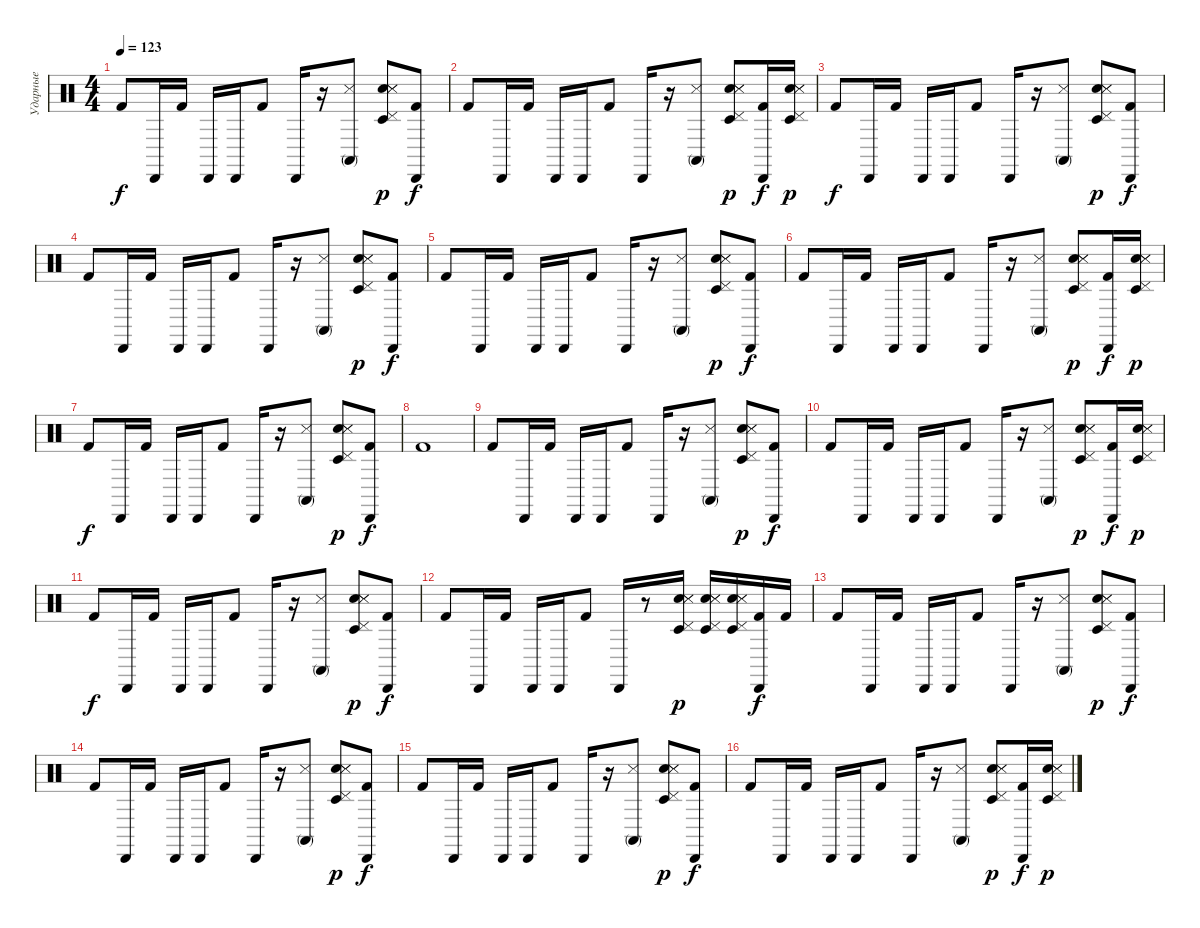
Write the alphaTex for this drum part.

\track ("Ударные" "Ударные") {instrument percussion}
\staff {score}
\articulation defaults
\ts (4 4)
\tempo 123
\clef neutral
\ks c "Kick (hit) 2".8{dy f} "Cabasa (hit)".16 "Kick (hit) 2".16 "Cabasa (hit)".16 "Cabasa (hit)".16 "Kick (hit) 2".8 "Cabasa (hit)".16
r.16 ("Conga high (mute)" "Metronome (hit)").8 ("Hand Clap (hit)" "Metronome (hit)" "Snare (side stick) 3" "Timbale low (hit)" "Pedal Hi-Hat (hit)").8{dy p} ("Cabasa (hit)" "Kick (hit) 2").8{dy f} |
"Kick (hit) 2".8 "Cabasa (hit)".16 "Kick (hit) 2".16 "Cabasa (hit)".16 "Cabasa (hit)".16 "Kick (hit) 2".8 "Cabasa (hit)".16 r.16 ("Conga high (mute)" "Metronome (hit)").8 ("Hand Clap (hit)" "Metronome (hit)" "Snare (side stick) 3" "Timbale low (hit)" "Pedal Hi-Hat (hit)").8{dy p} ("Cabasa (hit)" "Kick (hit) 2").16{dy f} ("Hand Clap (hit)" "Metronome (hit)" "Snare (side stick) 3" "Timbale low (hit)" "Pedal Hi-Hat (hit)").16{dy p} |
"Kick (hit) 2".8{dy f} "Cabasa (hit)".16 "Kick (hit) 2".16 "Cabasa (hit)".16 "Cabasa (hit)".16 "Kick (hit) 2".8 "Cabasa (hit)".16 r.16 ("Conga high (mute)" "Metronome (hit)").8 ("Hand Clap (hit)" "Metronome (hit)" "Snare (side stick) 3" "Timbale low (hit)" "Pedal Hi-Hat (hit)").8{dy p} ("Cabasa (hit)" "Kick (hit) 2").8{dy f} |
"Kick (hit) 2".8 "Cabasa (hit)".16 "Kick (hit) 2".16 "Cabasa (hit)".16 "Cabasa (hit)".16 "Kick (hit) 2".8 "Cabasa (hit)".16 r.16 ("Conga high (mute)" "Metronome (hit)").8 ("Hand Clap (hit)" "Metronome (hit)" "Snare (side stick) 3" "Timbale low (hit)" "Pedal Hi-Hat (hit)").8{dy p} ("Cabasa (hit)" "Kick (hit) 2").8{dy f} |
"Kick (hit) 2".8 "Cabasa (hit)".16 "Kick (hit) 2".16 "Cabasa (hit)".16 "Cabasa (hit)".16 "Kick (hit) 2".8 "Cabasa (hit)".16 r.16 ("Conga high (mute)" "Metronome (hit)").8 ("Hand Clap (hit)" "Metronome (hit)" "Snare (side stick) 3" "Timbale low (hit)" "Pedal Hi-Hat (hit)").8{dy p} ("Cabasa (hit)" "Kick (hit) 2").8{dy f} |
"Kick (hit) 2".8 "Cabasa (hit)".16 "Kick (hit) 2".16 "Cabasa (hit)".16 "Cabasa (hit)".16 "Kick (hit) 2".8 "Cabasa (hit)".16 r.16 ("Conga high (mute)" "Metronome (hit)").8 ("Hand Clap (hit)" "Metronome (hit)" "Snare (side stick) 3" "Timbale low (hit)" "Pedal Hi-Hat (hit)").8{dy p} ("Cabasa (hit)" "Kick (hit) 2").16{dy f} ("Hand Clap (hit)" "Metronome (hit)" "Snare (side stick) 3" "Timbale low (hit)" "Pedal Hi-Hat (hit)").16{dy p} |
"Kick (hit) 2".8{dy f} "Cabasa (hit)".16 "Kick (hit) 2".16 "Cabasa (hit)".16 "Cabasa (hit)".16 "Kick (hit) 2".8 "Cabasa (hit)".16 r.16 ("Conga high (mute)" "Metronome (hit)").8 ("Hand Clap (hit)" "Metronome (hit)" "Snare (side stick) 3" "Timbale low (hit)" "Pedal Hi-Hat (hit)").8{dy p} ("Cabasa (hit)" "Kick (hit) 2").8{dy f} |
"Kick (hit) 2".1 |
"Kick (hit) 2".8 "Cabasa (hit)".16 "Kick (hit) 2".16 "Cabasa (hit)".16 "Cabasa (hit)".16 "Kick (hit) 2".8 "Cabasa (hit)".16 r.16 ("Conga high (mute)" "Metronome (hit)").8 ("Hand Clap (hit)" "Metronome (hit)" "Snare (side stick) 3" "Timbale low (hit)" "Pedal Hi-Hat (hit)").8{dy p} ("Cabasa (hit)" "Kick (hit) 2").8{dy f} |
"Kick (hit) 2".8 "Cabasa (hit)".16 "Kick (hit) 2".16 "Cabasa (hit)".16 "Cabasa (hit)".16 "Kick (hit) 2".8 "Cabasa (hit)".16 r.16 ("Conga high (mute)" "Metronome (hit)").8 ("Hand Clap (hit)" "Metronome (hit)" "Snare (side stick) 3" "Timbale low (hit)" "Pedal Hi-Hat (hit)").8{dy p} ("Cabasa (hit)" "Kick (hit) 2").16{dy f} ("Hand Clap (hit)" "Metronome (hit)" "Snare (side stick) 3" "Timbale low (hit)" "Pedal Hi-Hat (hit)").16{dy p} |
"Kick (hit) 2".8{dy f} "Cabasa (hit)".16 "Kick (hit) 2".16 "Cabasa (hit)".16 "Cabasa (hit)".16 "Kick (hit) 2".8 "Cabasa (hit)".16 r.16 ("Conga high (mute)" "Metronome (hit)").8 ("Hand Clap (hit)" "Metronome (hit)" "Snare (side stick) 3" "Timbale low (hit)" "Pedal Hi-Hat (hit)").8{dy p} ("Cabasa (hit)" "Kick (hit) 2").8{dy f} |
"Kick (hit) 2".8 "Cabasa (hit)".16 "Kick (hit) 2".16 "Cabasa (hit)".16 "Cabasa (hit)".16 "Kick (hit) 2".8 "Cabasa (hit)".16 r.8 ("Hand Clap (hit)" "Metronome (hit)" "Snare (side stick) 3" "Timbale low (hit)" "Pedal Hi-Hat (hit)").16{dy p} ("Hand Clap (hit)" "Metronome (hit)" "Snare (side stick) 3" "Timbale low (hit)" "Pedal Hi-Hat (hit)").16 ("Hand Clap (hit)" "Metronome (hit)" "Snare (side stick) 3" "Timbale low (hit)" "Pedal Hi-Hat (hit)").16 ("Cabasa (hit)" "Kick (hit) 2").16{dy f} "Kick (hit) 2".16 |
"Kick (hit) 2".8 "Cabasa (hit)".16 "Kick (hit) 2".16 "Cabasa (hit)".16 "Cabasa (hit)".16 "Kick (hit) 2".8 "Cabasa (hit)".16 r.16 ("Conga high (mute)" "Metronome (hit)").8 ("Hand Clap (hit)" "Metronome (hit)" "Snare (side stick) 3" "Timbale low (hit)" "Pedal Hi-Hat (hit)").8{dy p} ("Cabasa (hit)" "Kick (hit) 2").8{dy f} |
"Kick (hit) 2".8 "Cabasa (hit)".16 "Kick (hit) 2".16 "Cabasa (hit)".16 "Cabasa (hit)".16 "Kick (hit) 2".8 "Cabasa (hit)".16 r.16 ("Conga high (mute)" "Metronome (hit)").8 ("Hand Clap (hit)" "Metronome (hit)" "Snare (side stick) 3" "Timbale low (hit)" "Pedal Hi-Hat (hit)").8{dy p} ("Cabasa (hit)" "Kick (hit) 2").8{dy f} |
"Kick (hit) 2".8 "Cabasa (hit)".16 "Kick (hit) 2".16 "Cabasa (hit)".16 "Cabasa (hit)".16 "Kick (hit) 2".8 "Cabasa (hit)".16 r.16 ("Conga high (mute)" "Metronome (hit)").8 ("Hand Clap (hit)" "Metronome (hit)" "Snare (side stick) 3" "Timbale low (hit)" "Pedal Hi-Hat (hit)").8{dy p} ("Cabasa (hit)" "Kick (hit) 2").8{dy f} |
"Kick (hit) 2".8 "Cabasa (hit)".16 "Kick (hit) 2".16 "Cabasa (hit)".16 "Cabasa (hit)".16 "Kick (hit) 2".8 "Cabasa (hit)".16 r.16 ("Conga high (mute)" "Metronome (hit)").8 ("Hand Clap (hit)" "Metronome (hit)" "Snare (side stick) 3" "Timbale low (hit)" "Pedal Hi-Hat (hit)").8{dy p} ("Cabasa (hit)" "Kick (hit) 2").16{dy f} ("Hand Clap (hit)" "Metronome (hit)" "Snare (side stick) 3" "Timbale low (hit)" "Pedal Hi-Hat (hit)").16{dy p}
